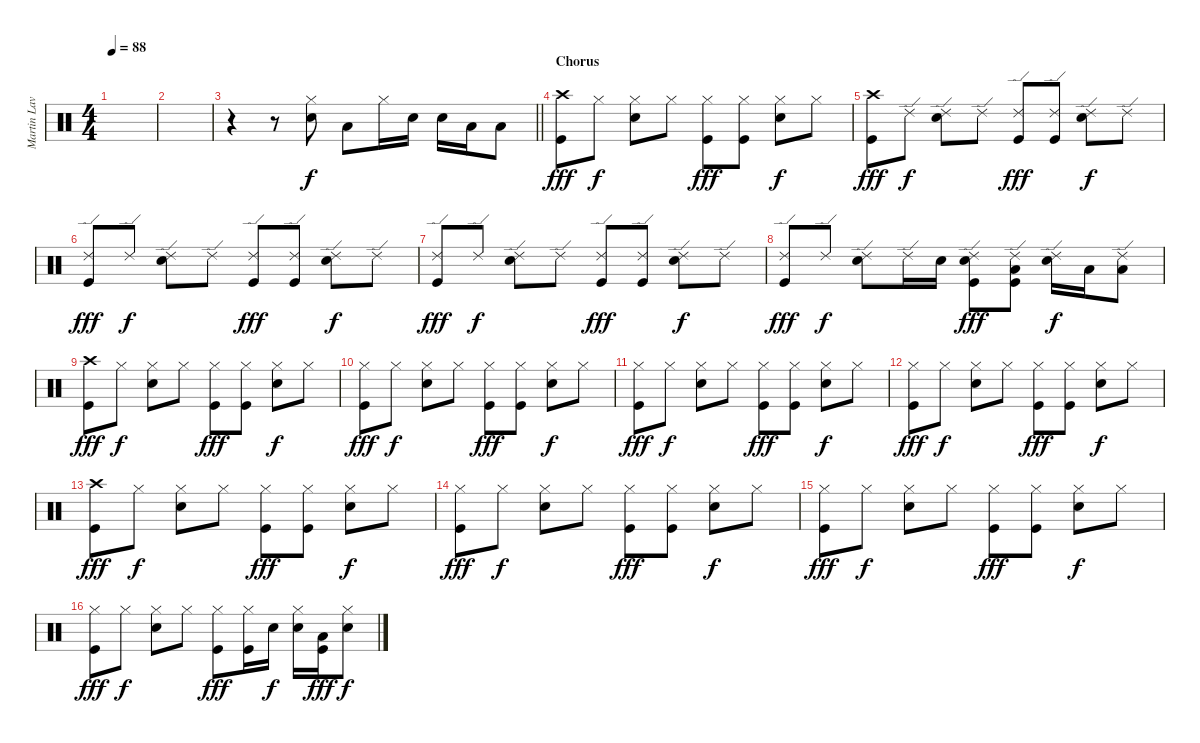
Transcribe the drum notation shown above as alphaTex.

\track ("Martin Lavalle" "Martin Lav") {instrument percussion}
\staff {score}
\articulation defaults
\ts (4 4)
\tempo 88
\clef neutral
\ks c
|
|
\barLineRight lightlight
r.4 r.8 ("Hi-Hat (closed)" "Snare (hit) 2").8 "Low Tom (hit)".8 "Hi-Hat (closed)".16 "Snare (hit) 2".16 "Snare (hit) 2".16 "Low Tom (hit)".16 "Low Tom (hit)".8 |
\section ("" "Chorus")
("Crash high (hit)" "Kick (hit)").8{dy fff} "Hi-Hat (closed)".8{dy f} ("Hi-Hat (closed)" "Snare (hit) 2").8 "Hi-Hat (closed)".8 ("Hi-Hat (closed)" "Kick (hit)").8{dy fff} ("Hi-Hat (closed)" "Kick (hit)").8 ("Hi-Hat (closed)" "Snare (hit) 2").8{dy f} "Hi-Hat (closed)".8 |
("Crash high (hit)" "Kick (hit)").8{dy fff} "Ride (edge) 2".8{dy f} ("Ride (edge) 2" "Snare (hit) 2").8 "Ride (edge) 2".8 ("Ride (edge) 2" "Kick (hit)").8{dy fff} ("Ride (edge) 2" "Kick (hit)").8 ("Ride (edge) 2" "Snare (hit) 2").8{dy f} "Ride (edge) 2".8 |
("Ride (edge) 2" "Kick (hit)").8{dy fff} "Ride (edge) 2".8{dy f} ("Ride (edge) 2" "Snare (hit) 2").8 "Ride (edge) 2".8 ("Ride (edge) 2" "Kick (hit)").8{dy fff} ("Ride (edge) 2" "Kick (hit)").8 ("Ride (edge) 2" "Snare (hit) 2").8{dy f} "Ride (edge) 2".8 |
("Ride (edge) 2" "Kick (hit)").8{dy fff} "Ride (edge) 2".8{dy f} ("Ride (edge) 2" "Snare (hit) 2").8 "Ride (edge) 2".8 ("Ride (edge) 2" "Kick (hit)").8{dy fff} ("Ride (edge) 2" "Kick (hit)").8 ("Ride (edge) 2" "Snare (hit) 2").8{dy f} "Ride (edge) 2".8 |
("Ride (edge) 2" "Kick (hit)").8{dy fff} "Ride (edge) 2".8{dy f} ("Ride (edge) 2" "Snare (hit) 2").8 "Ride (edge) 2".16 "Snare (hit) 2".16 ("Ride (edge) 2" "Snare (hit) 2" "Kick (hit)").8{dy fff} ("Ride (edge) 2" "Low Tom (hit)" "Kick (hit)").8 ("Ride (edge) 2" "Snare (hit) 2").16{dy f} "Low Tom (hit)".16 ("Ride (edge) 2" "Low Tom (hit)").8 |
("Crash high (hit)" "Kick (hit)").8{dy fff} "Hi-Hat (closed)".8{dy f} ("Hi-Hat (closed)" "Snare (hit) 2").8 "Hi-Hat (closed)".8 ("Hi-Hat (closed)" "Kick (hit)").8{dy fff} ("Hi-Hat (closed)" "Kick (hit)").8 ("Hi-Hat (closed)" "Snare (hit) 2").8{dy f} "Hi-Hat (closed)".8 |
("Hi-Hat (closed)" "Kick (hit)").8{dy fff} "Hi-Hat (closed)".8{dy f} ("Hi-Hat (closed)" "Snare (hit) 2").8 "Hi-Hat (closed)".8 ("Hi-Hat (closed)" "Kick (hit)").8{dy fff} ("Hi-Hat (closed)" "Kick (hit)").8 ("Hi-Hat (closed)" "Snare (hit) 2").8{dy f} "Hi-Hat (closed)".8 |
("Hi-Hat (closed)" "Kick (hit)").8{dy fff} "Hi-Hat (closed)".8{dy f} ("Hi-Hat (closed)" "Snare (hit) 2").8 "Hi-Hat (closed)".8 ("Hi-Hat (closed)" "Kick (hit)").8{dy fff} ("Hi-Hat (closed)" "Kick (hit)").8 ("Hi-Hat (closed)" "Snare (hit) 2").8{dy f} "Hi-Hat (closed)".8 |
("Hi-Hat (closed)" "Kick (hit)").8{dy fff} "Hi-Hat (closed)".8{dy f} ("Hi-Hat (closed)" "Snare (hit) 2").8 "Hi-Hat (closed)".8 ("Hi-Hat (closed)" "Kick (hit)").8{dy fff} ("Hi-Hat (closed)" "Kick (hit)").8 ("Hi-Hat (closed)" "Snare (hit) 2").8{dy f} "Hi-Hat (closed)".8 |
("Crash high (hit)" "Kick (hit)").8{dy fff} "Hi-Hat (closed)".8{dy f} ("Hi-Hat (closed)" "Snare (hit) 2").8 "Hi-Hat (closed)".8 ("Hi-Hat (closed)" "Kick (hit)").8{dy fff} ("Hi-Hat (closed)" "Kick (hit)").8 ("Hi-Hat (closed)" "Snare (hit) 2").8{dy f} "Hi-Hat (closed)".8 |
("Hi-Hat (closed)" "Kick (hit)").8{dy fff} "Hi-Hat (closed)".8{dy f} ("Hi-Hat (closed)" "Snare (hit) 2").8 "Hi-Hat (closed)".8 ("Hi-Hat (closed)" "Kick (hit)").8{dy fff} ("Hi-Hat (closed)" "Kick (hit)").8 ("Hi-Hat (closed)" "Snare (hit) 2").8{dy f} "Hi-Hat (closed)".8 |
("Hi-Hat (closed)" "Kick (hit)").8{dy fff} "Hi-Hat (closed)".8{dy f} ("Hi-Hat (closed)" "Snare (hit) 2").8 "Hi-Hat (closed)".8 ("Hi-Hat (closed)" "Kick (hit)").8{dy fff} ("Hi-Hat (closed)" "Kick (hit)").8 ("Hi-Hat (closed)" "Snare (hit) 2").8{dy f} "Hi-Hat (closed)".8 |
("Hi-Hat (closed)" "Kick (hit)").8{dy fff} "Hi-Hat (closed)".8{dy f} ("Hi-Hat (closed)" "Snare (hit) 2").8 "Hi-Hat (closed)".8 ("Hi-Hat (closed)" "Kick (hit)").8{dy fff} ("Hi-Hat (closed)" "Kick (hit)").16 "Snare (hit) 2".16{dy f} ("Hi-Hat (closed)" "Snare (hit) 2").16 ("Low Tom (hit)" "Kick (hit)").16{dy fff} ("Hi-Hat (closed)" "Snare (hit) 2").8{dy f}
